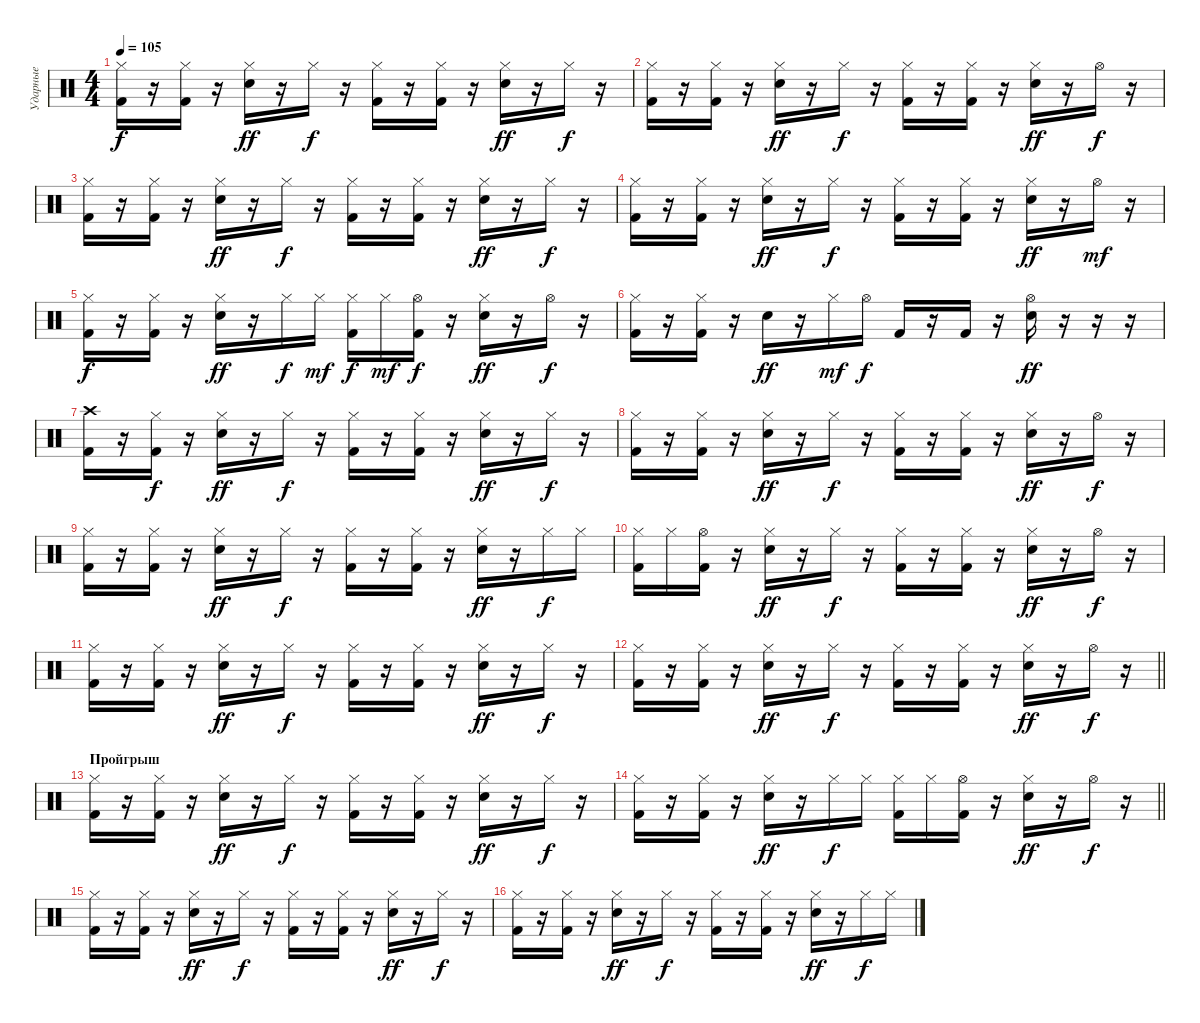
\track ("Ударные" "Ударные") {instrument percussion}
\staff {score}
\articulation defaults
\ts (4 4)
\tempo 105
\clef neutral
\ks c
("Hi-Hat (closed)" "Kick (hit) 2").16{dy f} r.16 ("Hi-Hat (closed)" "Kick (hit) 2").16 r.16 ("Hi-Hat (closed)" "Electric Snare (hit)").16{dy ff} r.16 "Hi-Hat (closed)".16{dy f} r.16 ("Hi-Hat (closed)" "Kick (hit) 2").16 r.16 ("Hi-Hat (closed)" "Kick (hit) 2").16 r.16 ("Hi-Hat (closed)" "Electric Snare (hit)").16{dy ff} r.16 "Hi-Hat (closed)".16{dy f} r.16 |
("Hi-Hat (closed)" "Kick (hit) 2").16 r.16 ("Hi-Hat (closed)" "Kick (hit) 2").16 r.16 ("Hi-Hat (closed)" "Electric Snare (hit)").16{dy ff} r.16 "Hi-Hat (closed)".16{dy f} r.16 ("Hi-Hat (closed)" "Kick (hit) 2").16 r.16 ("Hi-Hat (closed)" "Kick (hit) 2").16 r.16 ("Hi-Hat (closed)" "Electric Snare (hit)").16{dy ff} r.16 "Hi-Hat (open)".16{dy f} r.16 |
("Hi-Hat (closed)" "Kick (hit) 2").16 r.16 ("Hi-Hat (closed)" "Kick (hit) 2").16 r.16 ("Hi-Hat (closed)" "Electric Snare (hit)").16{dy ff} r.16 "Hi-Hat (closed)".16{dy f} r.16 ("Hi-Hat (closed)" "Kick (hit) 2").16 r.16 ("Hi-Hat (closed)" "Kick (hit) 2").16 r.16 ("Hi-Hat (closed)" "Electric Snare (hit)").16{dy ff} r.16 "Hi-Hat (closed)".16{dy f} r.16 |
("Hi-Hat (closed)" "Kick (hit) 2").16 r.16 ("Hi-Hat (closed)" "Kick (hit) 2").16 r.16 ("Hi-Hat (closed)" "Electric Snare (hit)").16{dy ff} r.16 "Hi-Hat (closed)".16{dy f} r.16 ("Hi-Hat (closed)" "Kick (hit) 2").16 r.16 ("Hi-Hat (closed)" "Kick (hit) 2").16 r.16 ("Hi-Hat (closed)" "Electric Snare (hit)").16{dy ff} r.16 "Hi-Hat (open)".16{dy mf} r.16 |
("Hi-Hat (closed)" "Kick (hit) 2").16{dy f} r.16 ("Hi-Hat (closed)" "Kick (hit) 2").16 r.16 ("Hi-Hat (closed)" "Electric Snare (hit)").16{dy ff} r.16 "Hi-Hat (closed)".16{dy f} "Hi-Hat (closed)".16{dy mf} ("Hi-Hat (closed)" "Kick (hit) 2").16{dy f} "Hi-Hat (closed)".16{dy mf} ("Hi-Hat (open)" "Kick (hit) 2").16{dy f} r.16 ("Hi-Hat (closed)" "Electric Snare (hit)").16{dy ff} r.16 "Hi-Hat (open)".16{dy f} r.16 |
("Hi-Hat (closed)" "Kick (hit) 2").16 r.16 ("Hi-Hat (closed)" "Kick (hit) 2").16 r.16 "Electric Snare (hit)".16{dy ff} r.16 "Hi-Hat (closed)".16{dy mf} "Hi-Hat (open)".16{dy f} "Kick (hit) 2".16 r.16 "Kick (hit) 2".16 r.16 ("Hi-Hat (open)" "Electric Snare (hit)").16{dy ff} r.16 r.16 r.16 |
("Crash high (hit)" "Kick (hit) 2").16 r.16 ("Hi-Hat (closed)" "Kick (hit) 2").16{dy f} r.16 ("Hi-Hat (closed)" "Electric Snare (hit)").16{dy ff} r.16 "Hi-Hat (closed)".16{dy f} r.16 ("Hi-Hat (closed)" "Kick (hit) 2").16 r.16 ("Hi-Hat (closed)" "Kick (hit) 2").16 r.16 ("Hi-Hat (closed)" "Electric Snare (hit)").16{dy ff} r.16 "Hi-Hat (closed)".16{dy f} r.16 |
("Hi-Hat (closed)" "Kick (hit) 2").16 r.16 ("Hi-Hat (closed)" "Kick (hit) 2").16 r.16 ("Hi-Hat (closed)" "Electric Snare (hit)").16{dy ff} r.16 "Hi-Hat (closed)".16{dy f} r.16 ("Hi-Hat (closed)" "Kick (hit) 2").16 r.16 ("Hi-Hat (closed)" "Kick (hit) 2").16 r.16 ("Hi-Hat (closed)" "Electric Snare (hit)").16{dy ff} r.16 "Hi-Hat (open)".16{dy f} r.16 |
("Hi-Hat (closed)" "Kick (hit) 2").16 r.16 ("Hi-Hat (closed)" "Kick (hit) 2").16 r.16 ("Hi-Hat (closed)" "Electric Snare (hit)").16{dy ff} r.16 "Hi-Hat (closed)".16{dy f} r.16 ("Hi-Hat (closed)" "Kick (hit) 2").16 r.16 ("Hi-Hat (closed)" "Kick (hit) 2").16 r.16 ("Hi-Hat (closed)" "Electric Snare (hit)").16{dy ff} r.16 "Hi-Hat (closed)".16{dy f} "Hi-Hat (closed)".16 |
("Hi-Hat (closed)" "Kick (hit) 2").16 "Hi-Hat (closed)".16 ("Hi-Hat (open)" "Kick (hit) 2").16 r.16 ("Hi-Hat (closed)" "Electric Snare (hit)").16{dy ff} r.16 "Hi-Hat (closed)".16{dy f} r.16 ("Hi-Hat (closed)" "Kick (hit) 2").16 r.16 ("Hi-Hat (closed)" "Kick (hit) 2").16 r.16 ("Hi-Hat (closed)" "Electric Snare (hit)").16{dy ff} r.16 "Hi-Hat (open)".16{dy f} r.16 |
("Hi-Hat (closed)" "Kick (hit) 2").16 r.16 ("Hi-Hat (closed)" "Kick (hit) 2").16 r.16 ("Hi-Hat (closed)" "Electric Snare (hit)").16{dy ff} r.16 "Hi-Hat (closed)".16{dy f} r.16 ("Hi-Hat (closed)" "Kick (hit) 2").16 r.16 ("Hi-Hat (closed)" "Kick (hit) 2").16 r.16 ("Hi-Hat (closed)" "Electric Snare (hit)").16{dy ff} r.16 "Hi-Hat (closed)".16{dy f} r.16 |
\barLineRight lightlight
("Hi-Hat (closed)" "Kick (hit) 2").16 r.16 ("Hi-Hat (closed)" "Kick (hit) 2").16 r.16 ("Hi-Hat (closed)" "Electric Snare (hit)").16{dy ff} r.16 "Hi-Hat (closed)".16{dy f} r.16 ("Hi-Hat (closed)" "Kick (hit) 2").16 r.16 ("Hi-Hat (closed)" "Kick (hit) 2").16 r.16 ("Hi-Hat (closed)" "Electric Snare (hit)").16{dy ff} r.16 "Hi-Hat (open)".16{dy f} r.16 |
\section ("" "Пройгрыш")
("Hi-Hat (closed)" "Kick (hit) 2").16 r.16 ("Hi-Hat (closed)" "Kick (hit) 2").16 r.16 ("Hi-Hat (closed)" "Electric Snare (hit)").16{dy ff} r.16 "Hi-Hat (closed)".16{dy f} r.16 ("Hi-Hat (closed)" "Kick (hit) 2").16 r.16 ("Hi-Hat (closed)" "Kick (hit) 2").16 r.16 ("Hi-Hat (closed)" "Electric Snare (hit)").16{dy ff} r.16 "Hi-Hat (closed)".16{dy f} r.16 |
\barLineRight lightlight
("Hi-Hat (closed)" "Kick (hit) 2").16 r.16 ("Hi-Hat (closed)" "Kick (hit) 2").16 r.16 ("Hi-Hat (closed)" "Electric Snare (hit)").16{dy ff} r.16 "Hi-Hat (closed)".16{dy f} "Hi-Hat (closed)".16 ("Hi-Hat (closed)" "Kick (hit) 2").16 "Hi-Hat (closed)".16 ("Hi-Hat (open)" "Kick (hit) 2").16 r.16 ("Hi-Hat (closed)" "Electric Snare (hit)").16{dy ff} r.16 "Hi-Hat (open)".16{dy f} r.16 |
("Hi-Hat (closed)" "Kick (hit) 2").16 r.16 ("Hi-Hat (closed)" "Kick (hit) 2").16 r.16 ("Hi-Hat (closed)" "Electric Snare (hit)").16{dy ff} r.16 "Hi-Hat (closed)".16{dy f} r.16 ("Hi-Hat (closed)" "Kick (hit) 2").16 r.16 ("Hi-Hat (closed)" "Kick (hit) 2").16 r.16 ("Hi-Hat (closed)" "Electric Snare (hit)").16{dy ff} r.16 "Hi-Hat (closed)".16{dy f} r.16 |
("Hi-Hat (closed)" "Kick (hit) 2").16 r.16 ("Hi-Hat (closed)" "Kick (hit) 2").16 r.16 ("Hi-Hat (closed)" "Electric Snare (hit)").16{dy ff} r.16 "Hi-Hat (closed)".16{dy f} r.16 ("Hi-Hat (closed)" "Kick (hit) 2").16 r.16 ("Hi-Hat (closed)" "Kick (hit) 2").16 r.16 ("Hi-Hat (closed)" "Electric Snare (hit)").16{dy ff} r.16 "Hi-Hat (closed)".16{dy f} "Hi-Hat (closed)".16
